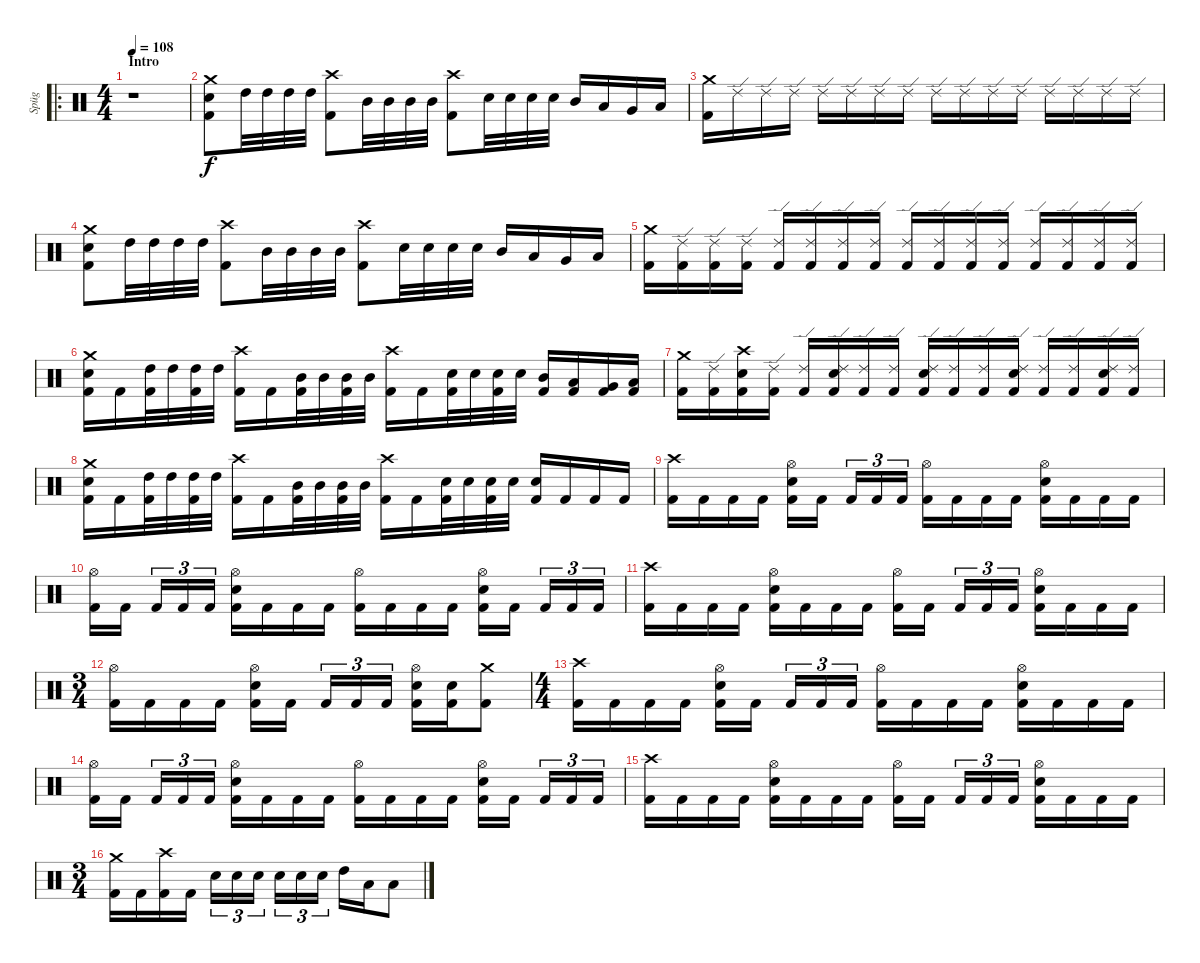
\track ("Spüg" "Spüg") {instrument percussion}
\staff {score}
\articulation defaults
\ro
\ts (4 4)
\section ("" "Intro")
\tempo 108
\clef neutral
\ks c
r.1{dy f} |
("Crash medium (hit)" "Electric Snare (hit)" "Kick (hit) 2").8 "High Tom (hit)".32 "High Tom (hit)".32 "High Tom (hit)".32 "High Tom (hit)".32 ("Crash high (hit)" "Kick (hit) 2").8 "Mid Tom (hit)".32 "Mid Tom (hit)".32 "Mid Tom (hit)".32 "Mid Tom (hit)".32 ("Crash high (hit)" "Kick (hit) 2").8 "Electric Snare (hit)".32 "Electric Snare (hit)".32 "Electric Snare (hit)".32 "Electric Snare (hit)".32 "Mid Tom (hit)".16 "Low Tom (hit)".16 "Very Low Tom (hit)".16 "Low Floor Tom (hit)".16 |
("Crash medium (hit)" "Kick (hit) 2").16 "Ride (edge) 2".16 "Ride (edge) 2".16 "Ride (edge) 2".16 "Ride (edge) 2".16 "Ride (edge) 2".16 "Ride (edge) 2".16 "Ride (edge) 2".16 "Ride (edge) 2".16 "Ride (edge) 2".16 "Ride (edge) 2".16 "Ride (edge) 2".16 "Ride (edge) 2".16 "Ride (edge) 2".16 "Ride (edge) 2".16 "Ride (edge) 2".16 |
("Crash medium (hit)" "Electric Snare (hit)" "Kick (hit) 2").8 "High Tom (hit)".32 "High Tom (hit)".32 "High Tom (hit)".32 "High Tom (hit)".32 ("Crash high (hit)" "Kick (hit) 2").8 "Mid Tom (hit)".32 "Mid Tom (hit)".32 "Mid Tom (hit)".32 "Mid Tom (hit)".32 ("Crash high (hit)" "Kick (hit) 2").8 "Electric Snare (hit)".32 "Electric Snare (hit)".32 "Electric Snare (hit)".32 "Electric Snare (hit)".32 "Mid Tom (hit)".16 "Low Tom (hit)".16 "Very Low Tom (hit)".16 "Low Floor Tom (hit)".16 |
("Crash medium (hit)" "Kick (hit) 2").16 ("Ride (edge) 2" "Kick (hit) 2").16 ("Ride (edge) 2" "Kick (hit) 2").16 ("Ride (edge) 2" "Kick (hit) 2").16 ("Ride (edge) 2" "Kick (hit) 2").16 ("Ride (edge) 2" "Kick (hit) 2").16 ("Ride (edge) 2" "Kick (hit) 2").16 ("Ride (edge) 2" "Kick (hit) 2").16 ("Ride (edge) 2" "Kick (hit) 2").16 ("Ride (edge) 2" "Kick (hit) 2").16 ("Ride (edge) 2" "Kick (hit) 2").16 ("Ride (edge) 2" "Kick (hit) 2").16 ("Ride (edge) 2" "Kick (hit) 2").16 ("Ride (edge) 2" "Kick (hit) 2").16 ("Ride (edge) 2" "Kick (hit) 2").16 ("Ride (edge) 2" "Kick (hit) 2").16 |
("Crash medium (hit)" "Electric Snare (hit)" "Kick (hit) 2").16 "Kick (hit) 2".16 ("High Tom (hit)" "Kick (hit) 2").32 "High Tom (hit)".32 ("High Tom (hit)" "Kick (hit) 2").32 "High Tom (hit)".32 ("Crash high (hit)" "Kick (hit) 2").16 "Kick (hit) 2".16 ("Mid Tom (hit)" "Kick (hit) 2").32 "Mid Tom (hit)".32 ("Mid Tom (hit)" "Kick (hit) 2").32 "Mid Tom (hit)".32 ("Crash high (hit)" "Kick (hit) 2").16 "Kick (hit) 2".16 ("Electric Snare (hit)" "Kick (hit) 2").32 "Electric Snare (hit)".32 ("Electric Snare (hit)" "Kick (hit) 2").32 "Electric Snare (hit)".32 ("Mid Tom (hit)" "Kick (hit) 2").16 ("Low Tom (hit)" "Kick (hit) 2").16 ("Very Low Tom (hit)" "Kick (hit) 2").16 ("Low Floor Tom (hit)" "Kick (hit) 2").16 |
("Crash medium (hit)" "Kick (hit) 2").16 ("Ride (edge) 2" "Kick (hit) 2").16 ("Crash high (hit)" "Electric Snare (hit)" "Kick (hit) 2").16 ("Ride (edge) 2" "Kick (hit) 2").16 ("Ride (edge) 2" "Kick (hit) 2").16 ("Ride (edge) 2" "Electric Snare (hit)" "Kick (hit) 2").16 ("Ride (edge) 2" "Kick (hit) 2").16 ("Ride (edge) 2" "Kick (hit) 2").16 ("Ride (edge) 2" "Electric Snare (hit)" "Kick (hit) 2").16 ("Ride (edge) 2" "Kick (hit) 2").16 ("Ride (edge) 2" "Kick (hit) 2").16 ("Ride (edge) 2" "Electric Snare (hit)" "Kick (hit) 2").16 ("Ride (edge) 2" "Kick (hit) 2").16 ("Ride (edge) 2" "Kick (hit) 2").16 ("Ride (edge) 2" "Electric Snare (hit)" "Kick (hit) 2").16 ("Ride (edge) 2" "Kick (hit) 2").16 |
("Crash medium (hit)" "Electric Snare (hit)" "Kick (hit) 2").16 "Kick (hit) 2".16 ("High Tom (hit)" "Kick (hit) 2").32 "High Tom (hit)".32 ("High Tom (hit)" "Kick (hit) 2").32 "High Tom (hit)".32 ("Crash high (hit)" "Kick (hit) 2").16 "Kick (hit) 2".16 ("Mid Tom (hit)" "Kick (hit) 2").32 "Mid Tom (hit)".32 ("Mid Tom (hit)" "Kick (hit) 2").32 "Mid Tom (hit)".32 ("Crash high (hit)" "Kick (hit) 2").16 "Kick (hit) 2".16 ("Electric Snare (hit)" "Kick (hit) 2").32 "Electric Snare (hit)".32 ("Electric Snare (hit)" "Kick (hit) 2").32 "Electric Snare (hit)".32 ("Electric Snare (hit)" "Kick (hit) 2").16 "Kick (hit) 2".16 "Kick (hit) 2".16 "Kick (hit) 2".16 |
("Crash high (hit)" "Kick (hit) 2").16 "Kick (hit) 2".16 "Kick (hit) 2".16 "Kick (hit) 2".16 ("Hi-Hat (open)" "Electric Snare (hit)" "Kick (hit) 2").16 "Kick (hit) 2".16 "Kick (hit) 2".16{tu (3 2)} "Kick (hit) 2".16{tu (3 2)} "Kick (hit) 2".16{tu (3 2)} ("Hi-Hat (open)" "Kick (hit) 2").16 "Kick (hit) 2".16 "Kick (hit) 2".16 "Kick (hit) 2".16 ("Hi-Hat (open)" "Electric Snare (hit)" "Kick (hit) 2").16 "Kick (hit) 2".16 "Kick (hit) 2".16 "Kick (hit) 2".16 |
("Hi-Hat (open)" "Kick (hit) 2").16 "Kick (hit) 2".16 "Kick (hit) 2".16{tu (3 2)} "Kick (hit) 2".16{tu (3 2)} "Kick (hit) 2".16{tu (3 2)} ("Hi-Hat (open)" "Electric Snare (hit)" "Kick (hit) 2").16 "Kick (hit) 2".16 "Kick (hit) 2".16 "Kick (hit) 2".16 ("Hi-Hat (open)" "Kick (hit) 2").16 "Kick (hit) 2".16 "Kick (hit) 2".16 "Kick (hit) 2".16 ("Hi-Hat (open)" "Electric Snare (hit)" "Kick (hit) 2").16 "Kick (hit) 2".16 "Kick (hit) 2".16{tu (3 2)} "Kick (hit) 2".16{tu (3 2)} "Kick (hit) 2".16{tu (3 2)} |
("Crash high (hit)" "Kick (hit) 2").16 "Kick (hit) 2".16 "Kick (hit) 2".16 "Kick (hit) 2".16 ("Hi-Hat (open)" "Electric Snare (hit)" "Kick (hit) 2").16 "Kick (hit) 2".16 "Kick (hit) 2".16 "Kick (hit) 2".16 ("Hi-Hat (open)" "Kick (hit) 2").16 "Kick (hit) 2".16 "Kick (hit) 2".16{tu (3 2)} "Kick (hit) 2".16{tu (3 2)} "Kick (hit) 2".16{tu (3 2)} ("Hi-Hat (open)" "Electric Snare (hit)" "Kick (hit) 2").16 "Kick (hit) 2".16 "Kick (hit) 2".16 "Kick (hit) 2".16 |
\ts (3 4)
("Hi-Hat (open)" "Kick (hit) 2").16 "Kick (hit) 2".16 "Kick (hit) 2".16 "Kick (hit) 2".16 ("Hi-Hat (open)" "Electric Snare (hit)" "Kick (hit) 2").16 "Kick (hit) 2".16 "Kick (hit) 2".16{tu (3 2)} "Kick (hit) 2".16{tu (3 2)} "Kick (hit) 2".16{tu (3 2)} ("Hi-Hat (open)" "Electric Snare (hit)" "Kick (hit) 2").16 ("Electric Snare (hit)" "Kick (hit) 2").16 ("Crash medium (hit)" "Kick (hit) 2").8 |
\ts (4 4)
("Crash high (hit)" "Kick (hit) 2").16 "Kick (hit) 2".16 "Kick (hit) 2".16 "Kick (hit) 2".16 ("Hi-Hat (open)" "Electric Snare (hit)" "Kick (hit) 2").16 "Kick (hit) 2".16 "Kick (hit) 2".16{tu (3 2)} "Kick (hit) 2".16{tu (3 2)} "Kick (hit) 2".16{tu (3 2)} ("Hi-Hat (open)" "Kick (hit) 2").16 "Kick (hit) 2".16 "Kick (hit) 2".16 "Kick (hit) 2".16 ("Hi-Hat (open)" "Electric Snare (hit)" "Kick (hit) 2").16 "Kick (hit) 2".16 "Kick (hit) 2".16 "Kick (hit) 2".16 |
("Hi-Hat (open)" "Kick (hit) 2").16 "Kick (hit) 2".16 "Kick (hit) 2".16{tu (3 2)} "Kick (hit) 2".16{tu (3 2)} "Kick (hit) 2".16{tu (3 2)} ("Hi-Hat (open)" "Electric Snare (hit)" "Kick (hit) 2").16 "Kick (hit) 2".16 "Kick (hit) 2".16 "Kick (hit) 2".16 ("Hi-Hat (open)" "Kick (hit) 2").16 "Kick (hit) 2".16 "Kick (hit) 2".16 "Kick (hit) 2".16 ("Hi-Hat (open)" "Electric Snare (hit)" "Kick (hit) 2").16 "Kick (hit) 2".16 "Kick (hit) 2".16{tu (3 2)} "Kick (hit) 2".16{tu (3 2)} "Kick (hit) 2".16{tu (3 2)} |
("Crash high (hit)" "Kick (hit) 2").16 "Kick (hit) 2".16 "Kick (hit) 2".16 "Kick (hit) 2".16 ("Hi-Hat (open)" "Electric Snare (hit)" "Kick (hit) 2").16 "Kick (hit) 2".16 "Kick (hit) 2".16 "Kick (hit) 2".16 ("Hi-Hat (open)" "Kick (hit) 2").16 "Kick (hit) 2".16 "Kick (hit) 2".16{tu (3 2)} "Kick (hit) 2".16{tu (3 2)} "Kick (hit) 2".16{tu (3 2)} ("Hi-Hat (open)" "Electric Snare (hit)" "Kick (hit) 2").16 "Kick (hit) 2".16 "Kick (hit) 2".16 "Kick (hit) 2".16 |
\ts (3 4)
("Crash medium (hit)" "Kick (hit) 2").16 "Kick (hit) 2".16 ("Crash high (hit)" "Kick (hit) 2").16 "Kick (hit) 2".16 "Electric Snare (hit)".16{tu (3 2)} "Electric Snare (hit)".16{tu (3 2)} "Electric Snare (hit)".16{tu (3 2)} "Electric Snare (hit)".16{tu (3 2)} "Electric Snare (hit)".16{tu (3 2)} "Electric Snare (hit)".16{tu (3 2)} "High Tom (hit)".16 "Low Tom (hit)".16 "Low Floor Tom (hit)".8
